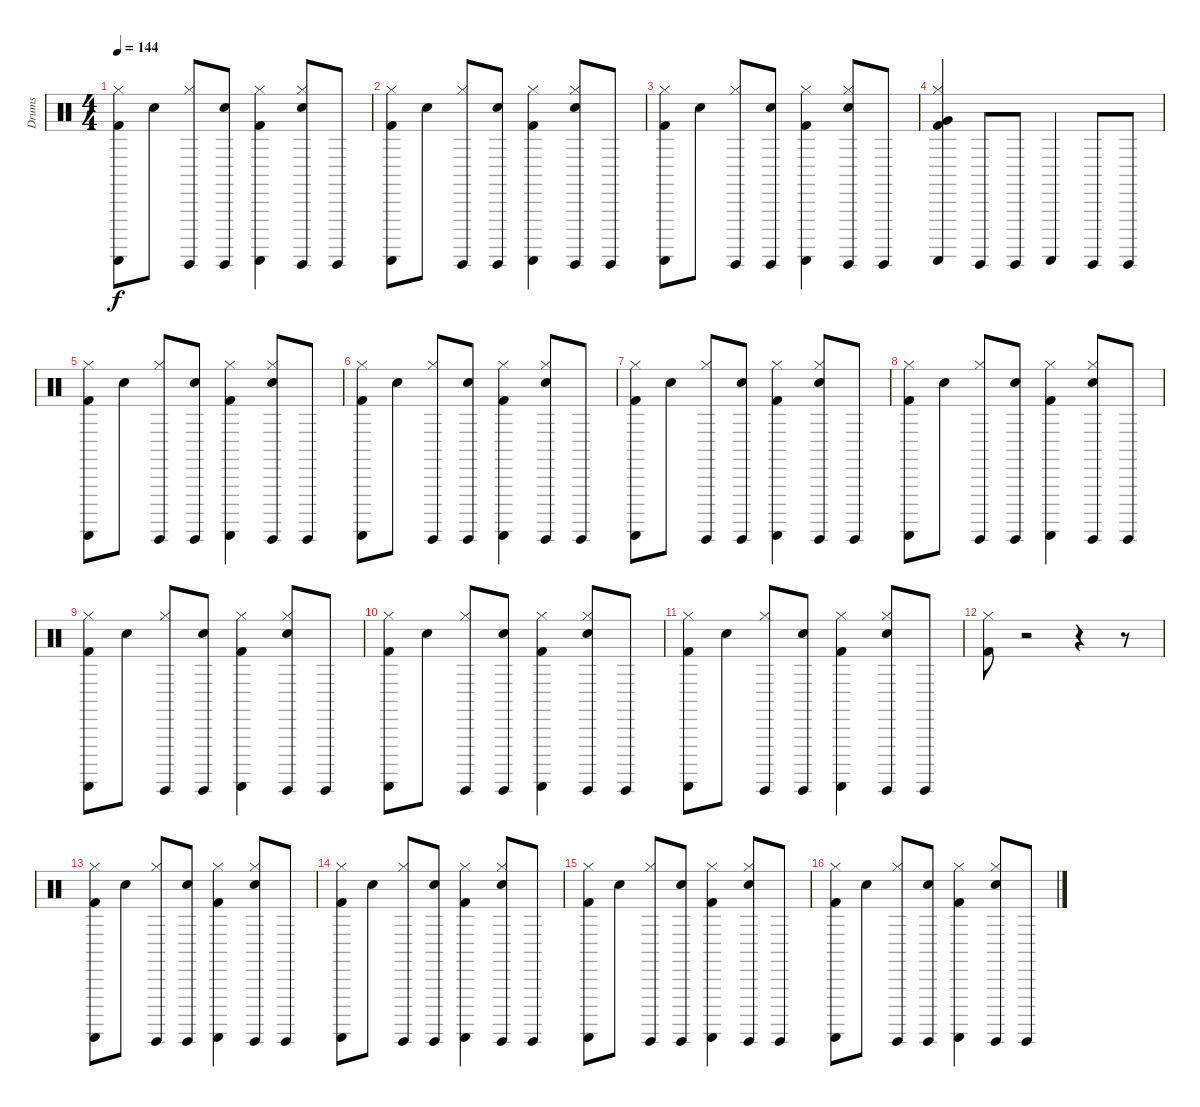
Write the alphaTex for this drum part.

\track ("Drums" "Drums") {instrument percussion}
\staff {score}
\articulation defaults
\ts (4 4)
\tempo 144
\clef neutral
\ks c
("Kick (hit) 2" "Guiro (scrap-return)" "Hi-Hat (closed)").8{dy f} "Electric Snare (hit)".8 ("Hi-Hat (closed)" "Guiro (hit)").8 ("Electric Snare (hit)" "Guiro (hit)").8 ("Hi-Hat (closed)" "Guiro (scrap-return)" "Kick (hit) 2").4 ("Guiro (hit)" "Electric Snare (hit)" "Hi-Hat (closed)").8 "Guiro (hit)".8 |
("Kick (hit) 2" "Guiro (scrap-return)" "Hi-Hat (closed)").8 "Electric Snare (hit)".8 ("Hi-Hat (closed)" "Guiro (hit)").8 ("Electric Snare (hit)" "Guiro (hit)").8 ("Hi-Hat (closed)" "Guiro (scrap-return)" "Kick (hit) 2").4 ("Guiro (hit)" "Electric Snare (hit)" "Hi-Hat (closed)").8 "Guiro (hit)".8 |
("Kick (hit) 2" "Guiro (scrap-return)" "Hi-Hat (closed)").8 "Electric Snare (hit)".8 ("Hi-Hat (closed)" "Guiro (hit)").8 ("Electric Snare (hit)" "Guiro (hit)").8 ("Hi-Hat (closed)" "Guiro (scrap-return)" "Kick (hit) 2").4 ("Guiro (hit)" "Electric Snare (hit)" "Hi-Hat (closed)").8 "Guiro (hit)".8 |
("Guiro (scrap-return)" "Hi-Hat (closed)" "Kick (hit) 2" "Very Low Tom (hit)").4 "Guiro (hit)".8 "Guiro (hit)".8 "Guiro (scrap-return)".4 "Guiro (hit)".8 "Guiro (hit)".8 |
("Kick (hit) 2" "Guiro (scrap-return)" "Hi-Hat (closed)").8 "Electric Snare (hit)".8 ("Hi-Hat (closed)" "Guiro (hit)").8 ("Electric Snare (hit)" "Guiro (hit)").8 ("Hi-Hat (closed)" "Guiro (scrap-return)" "Kick (hit) 2").4 ("Guiro (hit)" "Electric Snare (hit)" "Hi-Hat (closed)").8 "Guiro (hit)".8 |
("Kick (hit) 2" "Guiro (scrap-return)" "Hi-Hat (closed)").8 "Electric Snare (hit)".8 ("Hi-Hat (closed)" "Guiro (hit)").8 ("Electric Snare (hit)" "Guiro (hit)").8 ("Hi-Hat (closed)" "Guiro (scrap-return)" "Kick (hit) 2").4 ("Guiro (hit)" "Electric Snare (hit)" "Hi-Hat (closed)").8 "Guiro (hit)".8 |
("Kick (hit) 2" "Guiro (scrap-return)" "Hi-Hat (closed)").8 "Electric Snare (hit)".8 ("Hi-Hat (closed)" "Guiro (hit)").8 ("Electric Snare (hit)" "Guiro (hit)").8 ("Hi-Hat (closed)" "Guiro (scrap-return)" "Kick (hit) 2").4 ("Guiro (hit)" "Electric Snare (hit)" "Hi-Hat (closed)").8 "Guiro (hit)".8 |
("Kick (hit) 2" "Guiro (scrap-return)" "Hi-Hat (closed)").8 "Electric Snare (hit)".8 ("Hi-Hat (closed)" "Guiro (hit)").8 ("Electric Snare (hit)" "Guiro (hit)").8 ("Hi-Hat (closed)" "Guiro (scrap-return)" "Kick (hit) 2").4 ("Guiro (hit)" "Electric Snare (hit)" "Hi-Hat (closed)").8 "Guiro (hit)".8 |
("Kick (hit) 2" "Guiro (scrap-return)" "Hi-Hat (closed)").8 "Electric Snare (hit)".8 ("Hi-Hat (closed)" "Guiro (hit)").8 ("Electric Snare (hit)" "Guiro (hit)").8 ("Hi-Hat (closed)" "Guiro (scrap-return)" "Kick (hit) 2").4 ("Guiro (hit)" "Electric Snare (hit)" "Hi-Hat (closed)").8 "Guiro (hit)".8 |
("Kick (hit) 2" "Guiro (scrap-return)" "Hi-Hat (closed)").8 "Electric Snare (hit)".8 ("Hi-Hat (closed)" "Guiro (hit)").8 ("Electric Snare (hit)" "Guiro (hit)").8 ("Hi-Hat (closed)" "Guiro (scrap-return)" "Kick (hit) 2").4 ("Guiro (hit)" "Electric Snare (hit)" "Hi-Hat (closed)").8 "Guiro (hit)".8 |
("Kick (hit) 2" "Guiro (scrap-return)" "Hi-Hat (closed)").8 "Electric Snare (hit)".8 ("Hi-Hat (closed)" "Guiro (hit)").8 ("Electric Snare (hit)" "Guiro (hit)").8 ("Hi-Hat (closed)" "Guiro (scrap-return)" "Kick (hit) 2").4 ("Guiro (hit)" "Electric Snare (hit)" "Hi-Hat (closed)").8 "Guiro (hit)".8 |
("Kick (hit) 2" "Hi-Hat (closed)").8 r.2 r.4 r.8 |
("Kick (hit) 2" "Guiro (scrap-return)" "Hi-Hat (closed)").8 "Electric Snare (hit)".8 ("Hi-Hat (closed)" "Guiro (hit)").8 ("Electric Snare (hit)" "Guiro (hit)").8 ("Hi-Hat (closed)" "Guiro (scrap-return)" "Kick (hit) 2").4 ("Guiro (hit)" "Electric Snare (hit)" "Hi-Hat (closed)").8 "Guiro (hit)".8 |
("Kick (hit) 2" "Guiro (scrap-return)" "Hi-Hat (closed)").8 "Electric Snare (hit)".8 ("Hi-Hat (closed)" "Guiro (hit)").8 ("Electric Snare (hit)" "Guiro (hit)").8 ("Hi-Hat (closed)" "Guiro (scrap-return)" "Kick (hit) 2").4 ("Guiro (hit)" "Electric Snare (hit)" "Hi-Hat (closed)").8 "Guiro (hit)".8 |
("Kick (hit) 2" "Guiro (scrap-return)" "Hi-Hat (closed)").8 "Electric Snare (hit)".8 ("Hi-Hat (closed)" "Guiro (hit)").8 ("Electric Snare (hit)" "Guiro (hit)").8 ("Hi-Hat (closed)" "Guiro (scrap-return)" "Kick (hit) 2").4 ("Guiro (hit)" "Electric Snare (hit)" "Hi-Hat (closed)").8 "Guiro (hit)".8 |
("Kick (hit) 2" "Guiro (scrap-return)" "Hi-Hat (closed)").8 "Electric Snare (hit)".8 ("Hi-Hat (closed)" "Guiro (hit)").8 ("Electric Snare (hit)" "Guiro (hit)").8 ("Hi-Hat (closed)" "Guiro (scrap-return)" "Kick (hit) 2").4 ("Guiro (hit)" "Electric Snare (hit)" "Hi-Hat (closed)").8 "Guiro (hit)".8
